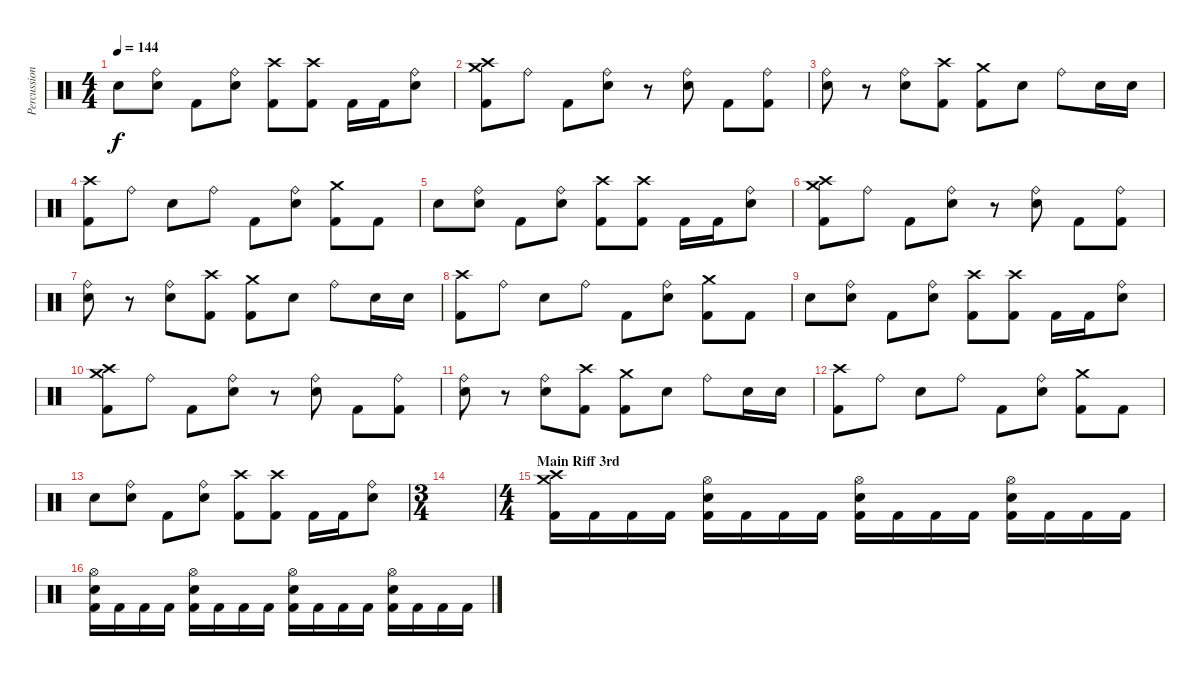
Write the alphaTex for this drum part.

\track ("Percussion" "Percussion") {instrument percussion}
\staff {score}
\articulation defaults
\ts (4 4)
\tempo 144
\clef neutral
\ks c "Electric Snare (hit)".8{dy f}
("Ride (bell)" "Electric Snare (hit)").8 "Kick (hit) 2".8 ("Ride (bell)" "Electric Snare (hit)").8 ("Crash high (hit)" "Kick (hit) 2").8 ("Crash high (hit)" "Kick (hit) 2").8 "Kick (hit) 2".16 "Kick (hit) 2".16 ("Ride (bell)" "Electric Snare (hit)").8 |
("Crash medium (hit)" "Crash high (hit)" "Kick (hit) 2").8 "Ride (bell)".8 "Kick (hit) 2".8 ("Ride (bell)" "Electric Snare (hit)").8 r.8 ("Ride (bell)" "Electric Snare (hit)").8 "Kick (hit) 2".8 ("Ride (bell)" "Kick (hit) 2").8 |
("Ride (bell)" "Electric Snare (hit)").8 r.8 ("Ride (bell)" "Electric Snare (hit)").8 ("Crash high (hit)" "Kick (hit) 2").8 ("Crash medium (hit)" "Kick (hit) 2").8 "Electric Snare (hit)".8 "Ride (bell)".8 "Electric Snare (hit)".16 "Electric Snare (hit)".16 |
("Crash high (hit)" "Kick (hit) 2").8 "Ride (bell)".8 "Electric Snare (hit)".8 "Ride (bell)".8 "Kick (hit) 2".8 ("Ride (bell)" "Electric Snare (hit)").8 ("Crash medium (hit)" "Kick (hit) 2").8 "Kick (hit) 2".8 |
"Electric Snare (hit)".8 ("Ride (bell)" "Electric Snare (hit)").8 "Kick (hit) 2".8 ("Ride (bell)" "Electric Snare (hit)").8 ("Crash high (hit)" "Kick (hit) 2").8 ("Crash high (hit)" "Kick (hit) 2").8 "Kick (hit) 2".16 "Kick (hit) 2".16 ("Ride (bell)" "Electric Snare (hit)").8 |
("Crash medium (hit)" "Crash high (hit)" "Kick (hit) 2").8 "Ride (bell)".8 "Kick (hit) 2".8 ("Ride (bell)" "Electric Snare (hit)").8 r.8 ("Ride (bell)" "Electric Snare (hit)").8 "Kick (hit) 2".8 ("Ride (bell)" "Kick (hit) 2").8 |
("Ride (bell)" "Electric Snare (hit)").8 r.8 ("Ride (bell)" "Electric Snare (hit)").8 ("Crash high (hit)" "Kick (hit) 2").8 ("Crash medium (hit)" "Kick (hit) 2").8 "Electric Snare (hit)".8 "Ride (bell)".8 "Electric Snare (hit)".16 "Electric Snare (hit)".16 |
("Crash high (hit)" "Kick (hit) 2").8 "Ride (bell)".8 "Electric Snare (hit)".8 "Ride (bell)".8 "Kick (hit) 2".8 ("Ride (bell)" "Electric Snare (hit)").8 ("Crash medium (hit)" "Kick (hit) 2").8 "Kick (hit) 2".8 |
"Electric Snare (hit)".8 ("Ride (bell)" "Electric Snare (hit)").8 "Kick (hit) 2".8 ("Ride (bell)" "Electric Snare (hit)").8 ("Crash high (hit)" "Kick (hit) 2").8 ("Crash high (hit)" "Kick (hit) 2").8 "Kick (hit) 2".16 "Kick (hit) 2".16 ("Ride (bell)" "Electric Snare (hit)").8 |
("Crash medium (hit)" "Crash high (hit)" "Kick (hit) 2").8 "Ride (bell)".8 "Kick (hit) 2".8 ("Ride (bell)" "Electric Snare (hit)").8 r.8 ("Ride (bell)" "Electric Snare (hit)").8 "Kick (hit) 2".8 ("Ride (bell)" "Kick (hit) 2").8 |
("Ride (bell)" "Electric Snare (hit)").8 r.8 ("Ride (bell)" "Electric Snare (hit)").8 ("Crash high (hit)" "Kick (hit) 2").8 ("Crash medium (hit)" "Kick (hit) 2").8 "Electric Snare (hit)".8 "Ride (bell)".8 "Electric Snare (hit)".16 "Electric Snare (hit)".16 |
("Crash high (hit)" "Kick (hit) 2").8 "Ride (bell)".8 "Electric Snare (hit)".8 "Ride (bell)".8 "Kick (hit) 2".8 ("Ride (bell)" "Electric Snare (hit)").8 ("Crash medium (hit)" "Kick (hit) 2").8 "Kick (hit) 2".8 |
"Electric Snare (hit)".8 ("Ride (bell)" "Electric Snare (hit)").8 "Kick (hit) 2".8 ("Ride (bell)" "Electric Snare (hit)").8 ("Crash high (hit)" "Kick (hit) 2").8 ("Crash high (hit)" "Kick (hit) 2").8 "Kick (hit) 2".16 "Kick (hit) 2".16 ("Ride (bell)" "Electric Snare (hit)").8 |
\ts (3 4)
|
\ts (4 4)
\section ("" "Main Riff 3rd")
("Crash medium (hit)" "Crash high (hit)" "Kick (hit) 2").16 "Kick (hit) 2".16 "Kick (hit) 2".16 "Kick (hit) 2".16 ("Hi-Hat (open)" "Electric Snare (hit)" "Kick (hit) 2").16 "Kick (hit) 2".16 "Kick (hit) 2".16 "Kick (hit) 2".16 ("Hi-Hat (open)" "Electric Snare (hit)" "Kick (hit) 2").16 "Kick (hit) 2".16 "Kick (hit) 2".16 "Kick (hit) 2".16 ("Hi-Hat (open)" "Electric Snare (hit)" "Kick (hit) 2").16 "Kick (hit) 2".16 "Kick (hit) 2".16 "Kick (hit) 2".16 |
("Hi-Hat (open)" "Electric Snare (hit)" "Kick (hit) 2").16 "Kick (hit) 2".16 "Kick (hit) 2".16 "Kick (hit) 2".16 ("Hi-Hat (open)" "Electric Snare (hit)" "Kick (hit) 2").16 "Kick (hit) 2".16 "Kick (hit) 2".16 "Kick (hit) 2".16 ("Hi-Hat (open)" "Electric Snare (hit)" "Kick (hit) 2").16 "Kick (hit) 2".16 "Kick (hit) 2".16 "Kick (hit) 2".16 ("Hi-Hat (open)" "Electric Snare (hit)" "Kick (hit) 2").16 "Kick (hit) 2".16 "Kick (hit) 2".16 "Kick (hit) 2".16
